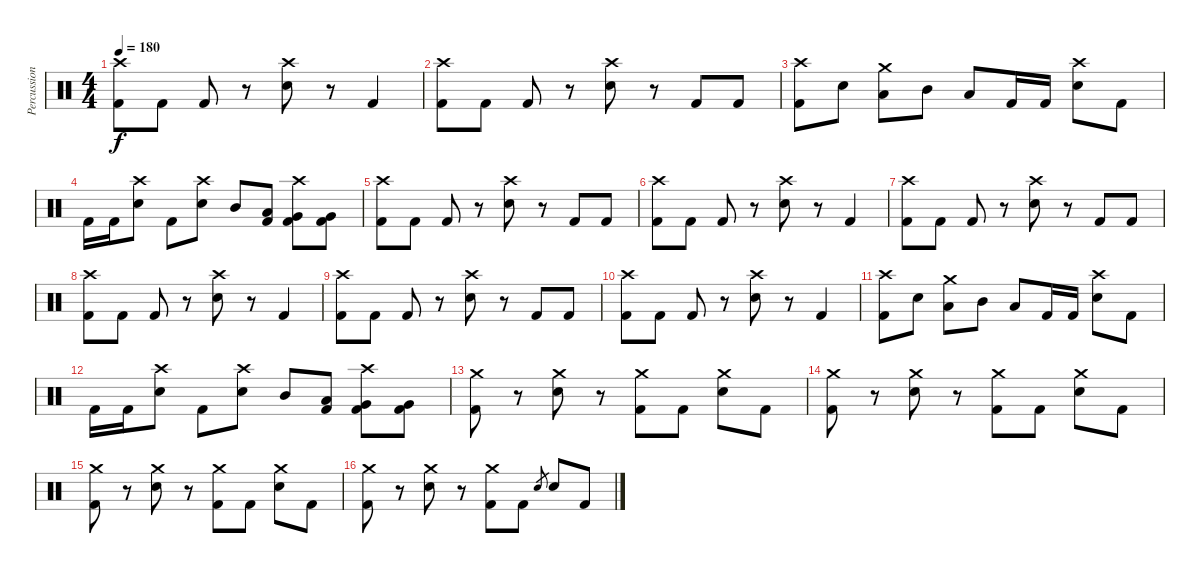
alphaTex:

\track ("Percussion" "Percussion") {instrument percussion}
\staff {score}
\articulation defaults
\ts (4 4)
\tempo 180
\clef neutral
\ks c
("Crash high (hit)" "Kick (hit) 2").8{dy f} "Kick (hit) 2".8 "Kick (hit) 2".8 r.8 ("Crash high (hit)" "Electric Snare (hit)").8 r.8 "Kick (hit) 2".4 |
("Crash high (hit)" "Kick (hit) 2").8 "Kick (hit) 2".8 "Kick (hit) 2".8 r.8 ("Crash high (hit)" "Electric Snare (hit)").8 r.8 "Kick (hit) 2".8 "Kick (hit) 2".8 |
("Crash high (hit)" "Kick (hit) 2").8 "Electric Snare (hit)".8 ("Crash medium (hit)" "Low Tom (hit)").8 "Mid Tom (hit)".8 "Low Tom (hit)".8 "Kick (hit) 2".16 "Kick (hit) 2".16 ("Crash high (hit)" "Electric Snare (hit)").8 "Kick (hit) 2".8 |
"Kick (hit) 2".16 "Kick (hit) 2".16 ("Crash high (hit)" "Electric Snare (hit)").8 "Kick (hit) 2".8 ("Crash high (hit)" "Electric Snare (hit)").8 "Mid Tom (hit)".8 ("Low Tom (hit)" "Kick (hit) 2").8 ("Crash high (hit)" "Very Low Tom (hit)" "Kick (hit) 2").8 ("Very Low Tom (hit)" "Kick (hit) 2").8 |
("Crash high (hit)" "Kick (hit) 2").8 "Kick (hit) 2".8 "Kick (hit) 2".8 r.8 ("Crash high (hit)" "Electric Snare (hit)").8 r.8 "Kick (hit) 2".8 "Kick (hit) 2".8 |
("Crash high (hit)" "Kick (hit) 2").8 "Kick (hit) 2".8 "Kick (hit) 2".8 r.8 ("Crash high (hit)" "Electric Snare (hit)").8 r.8 "Kick (hit) 2".4 |
("Crash high (hit)" "Kick (hit) 2").8 "Kick (hit) 2".8 "Kick (hit) 2".8 r.8 ("Crash high (hit)" "Electric Snare (hit)").8 r.8 "Kick (hit) 2".8 "Kick (hit) 2".8 |
("Crash high (hit)" "Kick (hit) 2").8 "Kick (hit) 2".8 "Kick (hit) 2".8 r.8 ("Crash high (hit)" "Electric Snare (hit)").8 r.8 "Kick (hit) 2".4 |
("Crash high (hit)" "Kick (hit) 2").8 "Kick (hit) 2".8 "Kick (hit) 2".8 r.8 ("Crash high (hit)" "Electric Snare (hit)").8 r.8 "Kick (hit) 2".8 "Kick (hit) 2".8 |
("Crash high (hit)" "Kick (hit) 2").8 "Kick (hit) 2".8 "Kick (hit) 2".8 r.8 ("Crash high (hit)" "Electric Snare (hit)").8 r.8 "Kick (hit) 2".4 |
("Crash high (hit)" "Kick (hit) 2").8 "Electric Snare (hit)".8 ("Crash medium (hit)" "Low Tom (hit)").8 "Mid Tom (hit)".8 "Low Tom (hit)".8 "Kick (hit) 2".16 "Kick (hit) 2".16 ("Crash high (hit)" "Electric Snare (hit)").8 "Kick (hit) 2".8 |
"Kick (hit) 2".16 "Kick (hit) 2".16 ("Crash high (hit)" "Electric Snare (hit)").8 "Kick (hit) 2".8 ("Crash high (hit)" "Electric Snare (hit)").8 "Mid Tom (hit)".8 ("Low Tom (hit)" "Kick (hit) 2").8 ("Crash high (hit)" "Very Low Tom (hit)" "Kick (hit) 2").8 ("Very Low Tom (hit)" "Kick (hit) 2").8 |
("Crash medium (hit)" "Kick (hit) 2").8 r.8 ("Crash medium (hit)" "Electric Snare (hit)").8 r.8 ("Crash medium (hit)" "Kick (hit) 2").8 "Kick (hit) 2".8 ("Crash medium (hit)" "Electric Snare (hit)").8 "Kick (hit) 2".8 |
("Crash medium (hit)" "Kick (hit) 2").8 r.8 ("Crash medium (hit)" "Electric Snare (hit)").8 r.8 ("Crash medium (hit)" "Kick (hit) 2").8 "Kick (hit) 2".8 ("Crash medium (hit)" "Electric Snare (hit)").8 "Kick (hit) 2".8 |
("Crash medium (hit)" "Kick (hit) 2").8 r.8 ("Crash medium (hit)" "Electric Snare (hit)").8 r.8 ("Crash medium (hit)" "Kick (hit) 2").8 "Kick (hit) 2".8 ("Crash medium (hit)" "Electric Snare (hit)").8 "Kick (hit) 2".8 |
("Crash medium (hit)" "Kick (hit) 2").8 r.8 ("Crash medium (hit)" "Electric Snare (hit)").8 r.8 ("Crash medium (hit)" "Kick (hit) 2").8 "Kick (hit) 2".8 "Electric Snare (hit)".8{gr} "Electric Snare (hit)".8 "Kick (hit) 2".8
